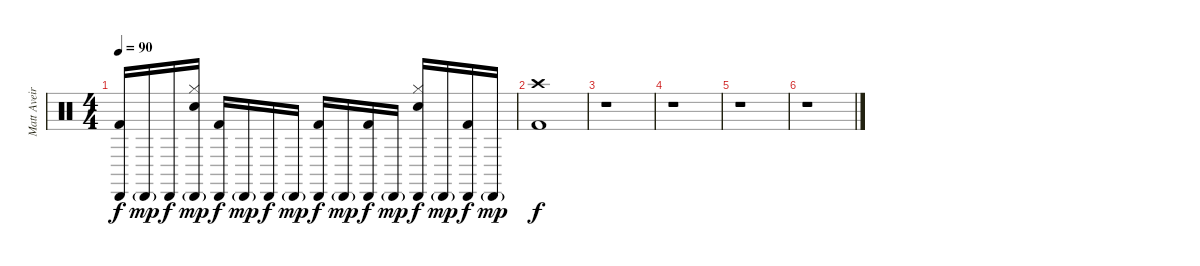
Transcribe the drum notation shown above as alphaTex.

\track ("Matt Aveiro-drums" "Matt Aveir") {instrument percussion}
\staff {score}
\articulation defaults
\ts (4 4)
\tempo 90
\clef neutral
\ks c
("Cabasa (hit)" "Kick (hit) 2").16{dy f} "Cabasa (hit)"{g}.16{dy mp} "Cabasa (hit)".16{dy f} ("Cabasa (hit)"{g} "Hi-Hat (closed)" "Snare (hit) 2").16{dy mp} ("Cabasa (hit)" "Kick (hit) 2").16{dy f} "Cabasa (hit)"{g}.16{dy mp} "Cabasa (hit)".16{dy f} "Cabasa (hit)"{g}.16{dy mp} ("Cabasa (hit)" "Kick (hit) 2").16{dy f} "Cabasa (hit)"{g}.16{dy mp} ("Cabasa (hit)" "Kick (hit) 2").16{dy f} "Cabasa (hit)"{g}.16{dy mp} ("Cabasa (hit)" "Hi-Hat (closed)" "Snare (hit) 2").16{dy f} "Cabasa (hit)"{g}.16{dy mp} ("Cabasa (hit)" "Kick (hit) 2").16{dy f} "Cabasa (hit)"{g}.16{dy mp} |
("Crash high (hit)" "Kick (hit) 2").1{dy f} |
r.1 |
r.1 |
r.1 |
r.1
